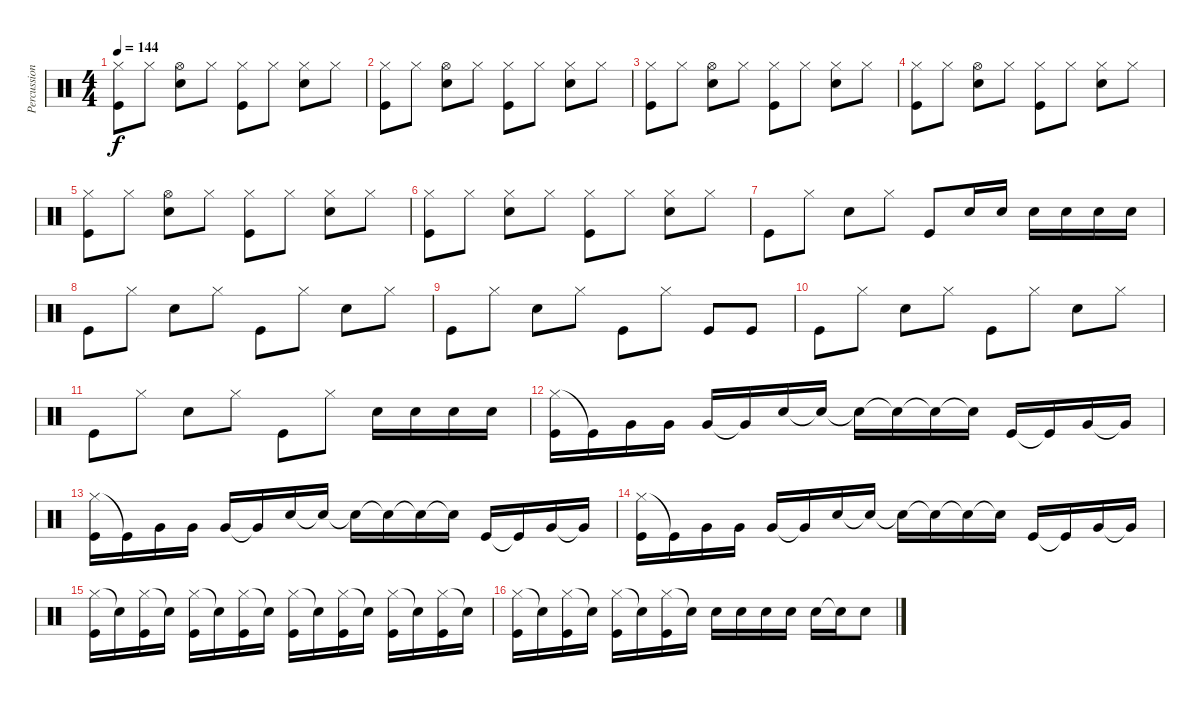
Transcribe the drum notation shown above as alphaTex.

\track ("Percussion" "Percussion") {instrument percussion}
\staff {score}
\articulation defaults
\ts (4 4)
\tempo 144
\clef neutral
\ks c
("Hi-Hat (closed)" "Kick (hit)").8{dy f} "Hi-Hat (closed)".8 ("Hi-Hat (open)" "Snare (hit) 2").8 "Hi-Hat (closed)".8 ("Hi-Hat (closed)" "Kick (hit)").8 "Hi-Hat (closed)".8 ("Hi-Hat (closed)" "Snare (hit) 2").8 "Hi-Hat (closed)".8 |
("Hi-Hat (closed)" "Kick (hit)").8 "Hi-Hat (closed)".8 ("Hi-Hat (open)" "Snare (hit) 2").8 "Hi-Hat (closed)".8 ("Hi-Hat (closed)" "Kick (hit)").8 "Hi-Hat (closed)".8 ("Hi-Hat (closed)" "Snare (hit) 2").8 "Hi-Hat (closed)".8 |
("Hi-Hat (closed)" "Kick (hit)").8 "Hi-Hat (closed)".8 ("Hi-Hat (open)" "Snare (hit) 2").8 "Hi-Hat (closed)".8 ("Hi-Hat (closed)" "Kick (hit)").8 "Hi-Hat (closed)".8 ("Hi-Hat (closed)" "Snare (hit) 2").8 "Hi-Hat (closed)".8 |
("Hi-Hat (closed)" "Kick (hit)").8 "Hi-Hat (closed)".8 ("Hi-Hat (open)" "Snare (hit) 2").8 "Hi-Hat (closed)".8 ("Hi-Hat (closed)" "Kick (hit)").8 "Hi-Hat (closed)".8 ("Hi-Hat (closed)" "Snare (hit) 2").8 "Hi-Hat (closed)".8 |
("Hi-Hat (closed)" "Kick (hit)").8 "Hi-Hat (closed)".8 ("Hi-Hat (open)" "Snare (hit) 2").8 "Hi-Hat (closed)".8 ("Hi-Hat (closed)" "Kick (hit)").8 "Hi-Hat (closed)".8 ("Hi-Hat (closed)" "Snare (hit) 2").8 "Hi-Hat (closed)".8 |
("Hi-Hat (closed)" "Kick (hit)").8 "Hi-Hat (closed)".8 ("Hi-Hat (closed)" "Snare (hit) 2").8 "Hi-Hat (closed)".8 ("Hi-Hat (closed)" "Kick (hit)").8 "Hi-Hat (closed)".8 ("Hi-Hat (closed)" "Snare (hit) 2").8 "Hi-Hat (closed)".8 |
"Kick (hit)".8 "Hi-Hat (closed)".8 "Snare (hit) 2".8 "Hi-Hat (closed)".8 "Kick (hit)".8 "Snare (hit) 2".16 "Snare (hit) 2".16 "Snare (hit) 2".16 "Snare (hit) 2".16 "Snare (hit) 2".16 "Snare (hit) 2".16 |
"Kick (hit)".8 "Hi-Hat (closed)".8 "Snare (hit) 2".8 "Hi-Hat (closed)".8 "Kick (hit)".8 "Hi-Hat (closed)".8 "Snare (hit) 2".8 "Hi-Hat (closed)".8 |
"Kick (hit)".8 "Hi-Hat (closed)".8 "Snare (hit) 2".8 "Hi-Hat (closed)".8 "Kick (hit)".8 "Hi-Hat (closed)".8 "Kick (hit)".8 "Kick (hit)".8 |
"Kick (hit)".8 "Hi-Hat (closed)".8 "Snare (hit) 2".8 "Hi-Hat (closed)".8 "Kick (hit)".8 "Hi-Hat (closed)".8 "Snare (hit) 2".8 "Hi-Hat (closed)".8 |
"Kick (hit)".8 "Hi-Hat (closed)".8 "Snare (hit) 2".8 "Hi-Hat (closed)".8 "Kick (hit)".8 "Hi-Hat (closed)".8 "Snare (hit) 2".16 "Snare (hit) 2".16 "Snare (hit) 2".16 "Snare (hit) 2".16 |
("Hi-Hat (closed)" "Kick (hit)").16 "Kick (hit)"{t}.16 "Very Low Tom (hit)".16 "Very Low Tom (hit)".16 "Very Low Tom (hit)".16 "Very Low Tom (hit)"{t}.16 "Snare (hit) 2".16 "Snare (hit)"{t}.16 "Snare (hit)"{t}.16 "Snare (hit)"{t}.16 "Snare (hit)"{t}.16 "Snare (hit)"{t}.16 "Kick (hit)".16 "Kick (hit)"{t}.16 "Very Low Tom (hit)".16 "Very Low Tom (hit)"{t}.16 |
("Hi-Hat (closed)" "Kick (hit)").16 "Kick (hit)"{t}.16 "Very Low Tom (hit)".16 "Very Low Tom (hit)".16 "Very Low Tom (hit)".16 "Very Low Tom (hit)"{t}.16 "Snare (hit) 2".16 "Snare (hit)"{t}.16 "Snare (hit)"{t}.16 "Snare (hit)"{t}.16 "Snare (hit)"{t}.16 "Snare (hit)"{t}.16 "Kick (hit)".16 "Kick (hit)"{t}.16 "Very Low Tom (hit)".16 "Very Low Tom (hit)"{t}.16 |
("Hi-Hat (closed)" "Kick (hit)").16 "Kick (hit)"{t}.16 "Very Low Tom (hit)".16 "Very Low Tom (hit)".16 "Very Low Tom (hit)".16 "Very Low Tom (hit)"{t}.16 "Snare (hit) 2".16 "Snare (hit)"{t}.16 "Snare (hit)"{t}.16 "Snare (hit)"{t}.16 "Snare (hit)"{t}.16 "Snare (hit)"{t}.16 "Kick (hit)".16 "Kick (hit)"{t}.16 "Very Low Tom (hit)".16 "Very Low Tom (hit)"{t}.16 |
("Hi-Hat (closed)" "Kick (hit)").16 "Snare (hit)"{t}.16 ("Hi-Hat (closed)" "Kick (hit)").16 "Snare (hit)"{t}.16 ("Hi-Hat (closed)" "Kick (hit)").16 "Snare (hit)"{t}.16 ("Hi-Hat (closed)" "Kick (hit)").16 "Snare (hit)"{t}.16 ("Hi-Hat (closed)" "Kick (hit)").16 "Snare (hit)"{t}.16 ("Hi-Hat (closed)" "Kick (hit)").16 "Snare (hit)"{t}.16 ("Hi-Hat (closed)" "Kick (hit)").16 "Snare (hit)"{t}.16 ("Hi-Hat (closed)" "Kick (hit)").16 "Snare (hit)"{t}.16 |
("Hi-Hat (closed)" "Kick (hit)").16 "Snare (hit)"{t}.16 ("Hi-Hat (closed)" "Kick (hit)").16 "Snare (hit)"{t}.16 ("Hi-Hat (closed)" "Kick (hit)").16 "Snare (hit)"{t}.16 ("Hi-Hat (closed)" "Kick (hit)").16 "Snare (hit)"{t}.16 "Snare (hit) 2".16 "Snare (hit) 2".16 "Snare (hit) 2".16 "Snare (hit) 2".16 "Snare (hit) 2".16 "Snare (hit)"{t}.16 "Snare (hit) 2".8
